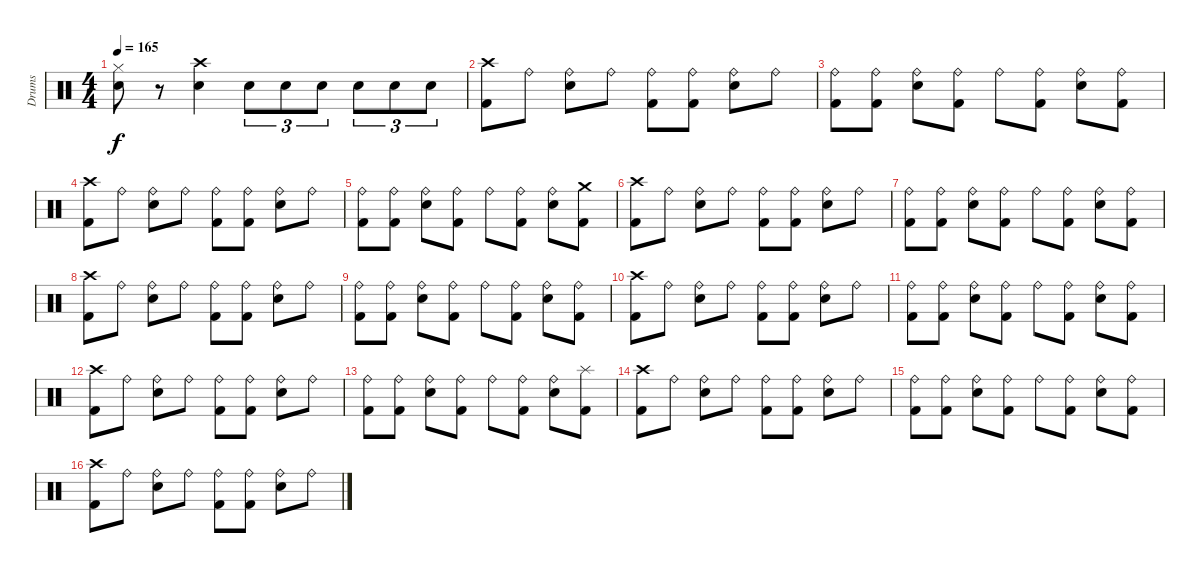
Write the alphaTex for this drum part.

\track ("Drums" "Drums") {instrument percussion}
\staff {score}
\articulation defaults
\ts (4 4)
\tempo 165
\clef neutral
\ks c
("Hi-Hat (closed)" "Snare (hit) 2").8{dy f} r.8 ("Crash high (hit)" "Snare (hit) 2").4 "Snare (hit) 2".8{tu (3 2)} "Snare (hit) 2".8{tu (3 2)} "Snare (hit) 2".8{tu (3 2)} "Snare (hit) 2".8{tu (3 2)} "Snare (hit) 2".8{tu (3 2)} "Snare (hit) 2".8{tu (3 2)} |
("Crash high (hit)" "Kick (hit) 2").8 "Ride (bell)".8 ("Ride (bell)" "Snare (hit) 2").8 "Ride (bell)".8 ("Ride (bell)" "Kick (hit) 2").8 ("Ride (bell)" "Kick (hit) 2").8 ("Ride (bell)" "Snare (hit) 2").8 "Ride (bell)".8 |
("Ride (bell)" "Kick (hit) 2").8 ("Ride (bell)" "Kick (hit) 2").8 ("Ride (bell)" "Snare (hit) 2").8 ("Ride (bell)" "Kick (hit) 2").8 "Ride (bell)".8 ("Ride (bell)" "Kick (hit) 2").8 ("Ride (bell)" "Snare (hit) 2").8 ("Ride (bell)" "Kick (hit) 2").8 |
("Crash high (hit)" "Kick (hit) 2").8 "Ride (bell)".8 ("Ride (bell)" "Snare (hit) 2").8 "Ride (bell)".8 ("Ride (bell)" "Kick (hit) 2").8 ("Ride (bell)" "Kick (hit) 2").8 ("Ride (bell)" "Snare (hit) 2").8 "Ride (bell)".8 |
("Ride (bell)" "Kick (hit) 2").8 ("Ride (bell)" "Kick (hit) 2").8 ("Ride (bell)" "Snare (hit) 2").8 ("Ride (bell)" "Kick (hit) 2").8 "Ride (bell)".8 ("Ride (bell)" "Kick (hit) 2").8 ("Ride (bell)" "Snare (hit) 2").8 ("Crash medium (hit)" "Kick (hit) 2").8 |
("Crash high (hit)" "Kick (hit) 2").8 "Ride (bell)".8 ("Ride (bell)" "Snare (hit) 2").8 "Ride (bell)".8 ("Ride (bell)" "Kick (hit) 2").8 ("Ride (bell)" "Kick (hit) 2").8 ("Ride (bell)" "Snare (hit) 2").8 "Ride (bell)".8 |
("Ride (bell)" "Kick (hit) 2").8 ("Ride (bell)" "Kick (hit) 2").8 ("Ride (bell)" "Snare (hit) 2").8 ("Ride (bell)" "Kick (hit) 2").8 "Ride (bell)".8 ("Ride (bell)" "Kick (hit) 2").8 ("Ride (bell)" "Snare (hit) 2").8 ("Ride (bell)" "Kick (hit) 2").8 |
("Crash high (hit)" "Kick (hit) 2").8 "Ride (bell)".8 ("Ride (bell)" "Snare (hit) 2").8 "Ride (bell)".8 ("Ride (bell)" "Kick (hit) 2").8 ("Ride (bell)" "Kick (hit) 2").8 ("Ride (bell)" "Snare (hit) 2").8 "Ride (bell)".8 |
("Ride (bell)" "Kick (hit) 2").8 ("Ride (bell)" "Kick (hit) 2").8 ("Ride (bell)" "Snare (hit) 2").8 ("Ride (bell)" "Kick (hit) 2").8 "Ride (bell)".8 ("Ride (bell)" "Kick (hit) 2").8 ("Ride (bell)" "Snare (hit) 2").8 ("Ride (bell)" "Kick (hit) 2").8 |
("Crash high (hit)" "Kick (hit) 2").8 "Ride (bell)".8 ("Ride (bell)" "Snare (hit) 2").8 "Ride (bell)".8 ("Ride (bell)" "Kick (hit) 2").8 ("Ride (bell)" "Kick (hit) 2").8 ("Ride (bell)" "Snare (hit) 2").8 "Ride (bell)".8 |
("Ride (bell)" "Kick (hit) 2").8 ("Ride (bell)" "Kick (hit) 2").8 ("Ride (bell)" "Snare (hit) 2").8 ("Ride (bell)" "Kick (hit) 2").8 "Ride (bell)".8 ("Ride (bell)" "Kick (hit) 2").8 ("Ride (bell)" "Snare (hit) 2").8 ("Ride (bell)" "Kick (hit) 2").8 |
("Crash high (hit)" "Kick (hit) 2").8 "Ride (bell)".8 ("Ride (bell)" "Snare (hit) 2").8 "Ride (bell)".8 ("Ride (bell)" "Kick (hit) 2").8 ("Ride (bell)" "Kick (hit) 2").8 ("Ride (bell)" "Snare (hit) 2").8 "Ride (bell)".8 |
("Ride (bell)" "Kick (hit) 2").8 ("Ride (bell)" "Kick (hit) 2").8 ("Ride (bell)" "Snare (hit) 2").8 ("Ride (bell)" "Kick (hit) 2").8 "Ride (bell)".8 ("Ride (bell)" "Kick (hit) 2").8 ("Ride (bell)" "Snare (hit) 2").8 ("Splash (hit)" "Kick (hit) 2").8 |
("Crash high (hit)" "Kick (hit) 2").8 "Ride (bell)".8 ("Ride (bell)" "Snare (hit) 2").8 "Ride (bell)".8 ("Ride (bell)" "Kick (hit) 2").8 ("Ride (bell)" "Kick (hit) 2").8 ("Ride (bell)" "Snare (hit) 2").8 "Ride (bell)".8 |
("Ride (bell)" "Kick (hit) 2").8 ("Ride (bell)" "Kick (hit) 2").8 ("Ride (bell)" "Snare (hit) 2").8 ("Ride (bell)" "Kick (hit) 2").8 "Ride (bell)".8 ("Ride (bell)" "Kick (hit) 2").8 ("Ride (bell)" "Snare (hit) 2").8 ("Ride (bell)" "Kick (hit) 2").8 |
("Crash high (hit)" "Kick (hit) 2").8 "Ride (bell)".8 ("Ride (bell)" "Snare (hit) 2").8 "Ride (bell)".8 ("Ride (bell)" "Kick (hit) 2").8 ("Ride (bell)" "Kick (hit) 2").8 ("Ride (bell)" "Snare (hit) 2").8 "Ride (bell)".8
